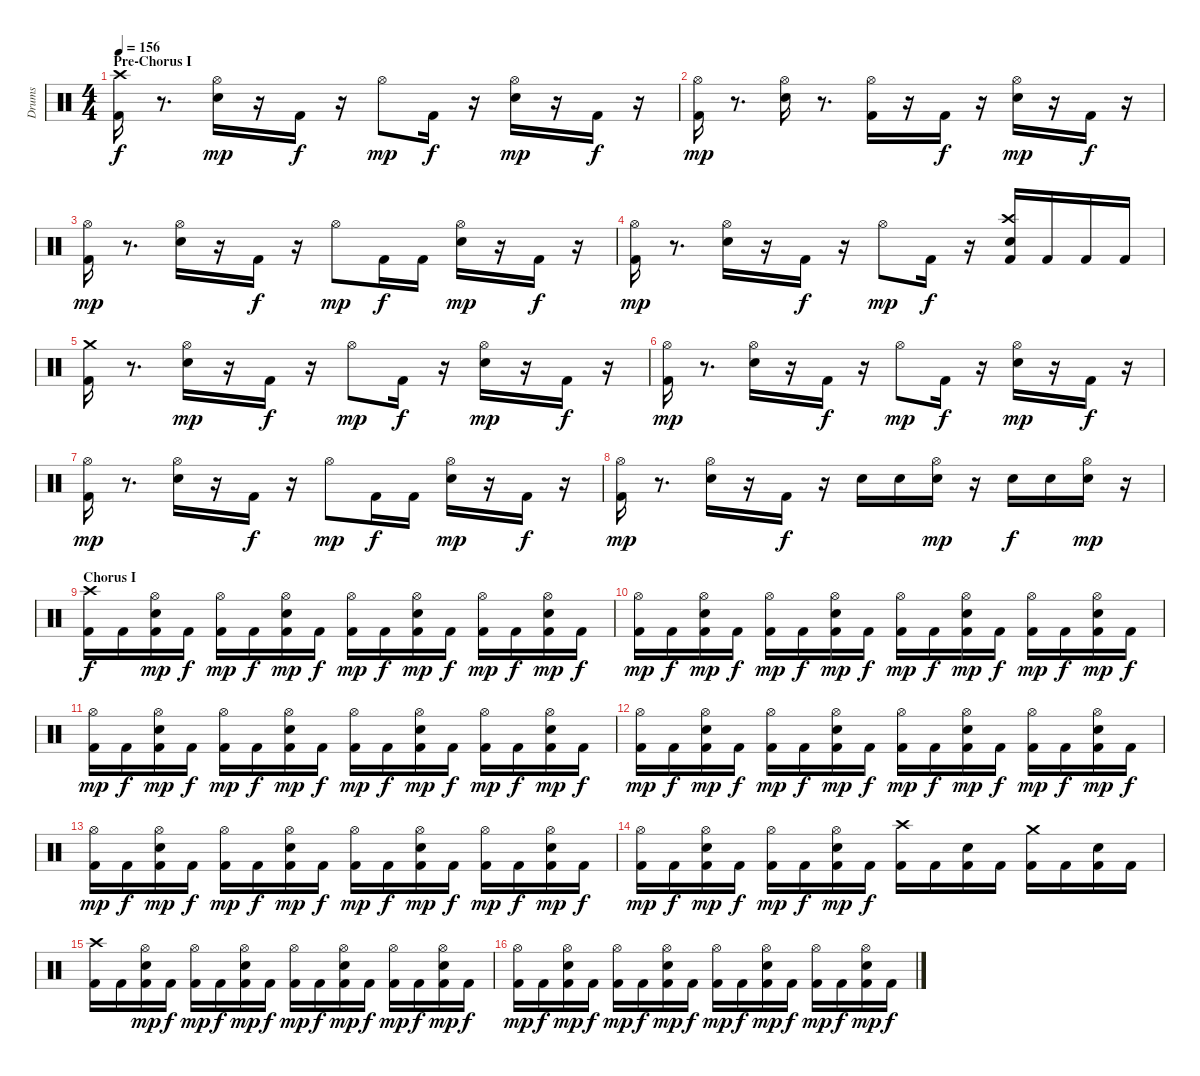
\track ("Drums" "Drums") {instrument percussion}
\staff {score}
\articulation defaults
\ts (4 4)
\section ("" "Pre-Chorus I")
\tempo 156
\clef neutral
\ks c
("Kick (hit) 2" "Crash high (hit)").16{dy f} r.8{d} ("Snare (hit) 2" "Hi-Hat (open)").16{dy mp} r.16 "Kick (hit) 2".16{dy f} r.16 "Hi-Hat (open)".8{dy mp} "Kick (hit) 2".16{dy f} r.16 ("Snare (hit) 2" "Hi-Hat (open)").16{dy mp} r.16 "Kick (hit) 2".16{dy f} r.16 |
("Kick (hit) 2" "Hi-Hat (open)").16{dy mp} r.8{d} ("Snare (hit) 2" "Hi-Hat (open)").16 r.8{d} ("Kick (hit) 2" "Hi-Hat (open)").16 r.16 "Kick (hit) 2".16{dy f} r.16 ("Snare (hit) 2" "Hi-Hat (open)").16{dy mp} r.16 "Kick (hit) 2".16{dy f} r.16 |
("Kick (hit) 2" "Hi-Hat (open)").16{dy mp} r.8{d} ("Snare (hit) 2" "Hi-Hat (open)").16 r.16 "Kick (hit) 2".16{dy f} r.16 "Hi-Hat (open)".8{dy mp} "Kick (hit) 2".16{dy f} "Kick (hit) 2".16 ("Snare (hit) 2" "Hi-Hat (open)").16{dy mp} r.16 "Kick (hit) 2".16{dy f} r.16 |
("Kick (hit) 2" "Hi-Hat (open)").16{dy mp} r.8{d} ("Snare (hit) 2" "Hi-Hat (open)").16 r.16 "Kick (hit) 2".16{dy f} r.16 "Hi-Hat (open)".8{dy mp} "Kick (hit) 2".16{dy f} r.16 ("Snare (hit) 2" "Kick (hit) 2" "Crash high (hit)").16 "Kick (hit) 2".16 "Kick (hit) 2".16 "Kick (hit) 2".16 |
("Kick (hit) 2" "Crash medium (hit)").16 r.8{d} ("Snare (hit) 2" "Hi-Hat (open)").16{dy mp} r.16 "Kick (hit) 2".16{dy f} r.16 "Hi-Hat (open)".8{dy mp} "Kick (hit) 2".16{dy f} r.16 ("Snare (hit) 2" "Hi-Hat (open)").16{dy mp} r.16 "Kick (hit) 2".16{dy f} r.16 |
("Kick (hit) 2" "Hi-Hat (open)").16{dy mp} r.8{d} ("Snare (hit) 2" "Hi-Hat (open)").16 r.16 "Kick (hit) 2".16{dy f} r.16 "Hi-Hat (open)".8{dy mp} "Kick (hit) 2".16{dy f} r.16 ("Snare (hit) 2" "Hi-Hat (open)").16{dy mp} r.16 "Kick (hit) 2".16{dy f} r.16 |
("Kick (hit) 2" "Hi-Hat (open)").16{dy mp} r.8{d} ("Snare (hit) 2" "Hi-Hat (open)").16 r.16 "Kick (hit) 2".16{dy f} r.16 "Hi-Hat (open)".8{dy mp} "Kick (hit) 2".16{dy f} "Kick (hit) 2".16 ("Snare (hit) 2" "Hi-Hat (open)").16{dy mp} r.16 "Kick (hit) 2".16{dy f} r.16 |
("Kick (hit) 2" "Hi-Hat (open)").16{dy mp} r.8{d} ("Snare (hit) 2" "Hi-Hat (open)").16 r.16 "Kick (hit) 2".16{dy f} r.16 "Snare (hit) 2".16 "Snare (hit) 2".16 ("Snare (hit) 2" "Hi-Hat (open)").16{dy mp} r.16 "Snare (hit) 2".16{dy f} "Snare (hit) 2".16 ("Snare (hit) 2" "Hi-Hat (open)").16{dy mp} r.16 |
\section ("" "Chorus I")
("Kick (hit) 2" "Crash high (hit)").16{dy f} "Kick (hit) 2".16 ("Snare (hit) 2" "Kick (hit) 2" "Hi-Hat (open)").16{dy mp} "Kick (hit) 2".16{dy f} ("Kick (hit) 2" "Hi-Hat (open)").16{dy mp} "Kick (hit) 2".16{dy f} ("Snare (hit) 2" "Kick (hit) 2" "Hi-Hat (open)").16{dy mp} "Kick (hit) 2".16{dy f} ("Kick (hit) 2" "Hi-Hat (open)").16{dy mp} "Kick (hit) 2".16{dy f} ("Snare (hit) 2" "Kick (hit) 2" "Hi-Hat (open)").16{dy mp} "Kick (hit) 2".16{dy f} ("Kick (hit) 2" "Hi-Hat (open)").16{dy mp} "Kick (hit) 2".16{dy f} ("Snare (hit) 2" "Kick (hit) 2" "Hi-Hat (open)").16{dy mp} "Kick (hit) 2".16{dy f} |
("Kick (hit) 2" "Hi-Hat (open)").16{dy mp} "Kick (hit) 2".16{dy f} ("Snare (hit) 2" "Kick (hit) 2" "Hi-Hat (open)").16{dy mp} "Kick (hit) 2".16{dy f} ("Kick (hit) 2" "Hi-Hat (open)").16{dy mp} "Kick (hit) 2".16{dy f} ("Snare (hit) 2" "Kick (hit) 2" "Hi-Hat (open)").16{dy mp} "Kick (hit) 2".16{dy f} ("Kick (hit) 2" "Hi-Hat (open)").16{dy mp} "Kick (hit) 2".16{dy f} ("Snare (hit) 2" "Kick (hit) 2" "Hi-Hat (open)").16{dy mp} "Kick (hit) 2".16{dy f} ("Kick (hit) 2" "Hi-Hat (open)").16{dy mp} "Kick (hit) 2".16{dy f} ("Snare (hit) 2" "Kick (hit) 2" "Hi-Hat (open)").16{dy mp} "Kick (hit) 2".16{dy f} |
("Kick (hit) 2" "Hi-Hat (open)").16{dy mp} "Kick (hit) 2".16{dy f} ("Snare (hit) 2" "Kick (hit) 2" "Hi-Hat (open)").16{dy mp} "Kick (hit) 2".16{dy f} ("Kick (hit) 2" "Hi-Hat (open)").16{dy mp} "Kick (hit) 2".16{dy f} ("Snare (hit) 2" "Kick (hit) 2" "Hi-Hat (open)").16{dy mp} "Kick (hit) 2".16{dy f} ("Kick (hit) 2" "Hi-Hat (open)").16{dy mp} "Kick (hit) 2".16{dy f} ("Snare (hit) 2" "Kick (hit) 2" "Hi-Hat (open)").16{dy mp} "Kick (hit) 2".16{dy f} ("Kick (hit) 2" "Hi-Hat (open)").16{dy mp} "Kick (hit) 2".16{dy f} ("Snare (hit) 2" "Kick (hit) 2" "Hi-Hat (open)").16{dy mp} "Kick (hit) 2".16{dy f} |
("Kick (hit) 2" "Hi-Hat (open)").16{dy mp} "Kick (hit) 2".16{dy f} ("Snare (hit) 2" "Kick (hit) 2" "Hi-Hat (open)").16{dy mp} "Kick (hit) 2".16{dy f} ("Kick (hit) 2" "Hi-Hat (open)").16{dy mp} "Kick (hit) 2".16{dy f} ("Snare (hit) 2" "Kick (hit) 2" "Hi-Hat (open)").16{dy mp} "Kick (hit) 2".16{dy f} ("Kick (hit) 2" "Hi-Hat (open)").16{dy mp} "Kick (hit) 2".16{dy f} ("Snare (hit) 2" "Kick (hit) 2" "Hi-Hat (open)").16{dy mp} "Kick (hit) 2".16{dy f} ("Kick (hit) 2" "Hi-Hat (open)").16{dy mp} "Kick (hit) 2".16{dy f} ("Snare (hit) 2" "Kick (hit) 2" "Hi-Hat (open)").16{dy mp} "Kick (hit) 2".16{dy f} |
("Kick (hit) 2" "Hi-Hat (open)").16{dy mp} "Kick (hit) 2".16{dy f} ("Snare (hit) 2" "Kick (hit) 2" "Hi-Hat (open)").16{dy mp} "Kick (hit) 2".16{dy f} ("Kick (hit) 2" "Hi-Hat (open)").16{dy mp} "Kick (hit) 2".16{dy f} ("Snare (hit) 2" "Kick (hit) 2" "Hi-Hat (open)").16{dy mp} "Kick (hit) 2".16{dy f} ("Kick (hit) 2" "Hi-Hat (open)").16{dy mp} "Kick (hit) 2".16{dy f} ("Snare (hit) 2" "Kick (hit) 2" "Hi-Hat (open)").16{dy mp} "Kick (hit) 2".16{dy f} ("Kick (hit) 2" "Hi-Hat (open)").16{dy mp} "Kick (hit) 2".16{dy f} ("Snare (hit) 2" "Kick (hit) 2" "Hi-Hat (open)").16{dy mp} "Kick (hit) 2".16{dy f} |
("Kick (hit) 2" "Hi-Hat (open)").16{dy mp} "Kick (hit) 2".16{dy f} ("Snare (hit) 2" "Kick (hit) 2" "Hi-Hat (open)").16{dy mp} "Kick (hit) 2".16{dy f} ("Kick (hit) 2" "Hi-Hat (open)").16{dy mp} "Kick (hit) 2".16{dy f} ("Snare (hit) 2" "Kick (hit) 2" "Hi-Hat (open)").16{dy mp} "Kick (hit) 2".16{dy f} ("Kick (hit) 2" "Crash high (hit)").16 "Kick (hit) 2".16 ("Snare (hit) 2" "Kick (hit) 2").16 "Kick (hit) 2".16 ("Kick (hit) 2" "Crash medium (hit)").16 "Kick (hit) 2".16 ("Snare (hit) 2" "Kick (hit) 2").16 "Kick (hit) 2".16 |
("Kick (hit) 2" "Crash high (hit)").16 "Kick (hit) 2".16 ("Snare (hit) 2" "Kick (hit) 2" "Hi-Hat (open)").16{dy mp} "Kick (hit) 2".16{dy f} ("Kick (hit) 2" "Hi-Hat (open)").16{dy mp} "Kick (hit) 2".16{dy f} ("Snare (hit) 2" "Kick (hit) 2" "Hi-Hat (open)").16{dy mp} "Kick (hit) 2".16{dy f} ("Kick (hit) 2" "Hi-Hat (open)").16{dy mp} "Kick (hit) 2".16{dy f} ("Snare (hit) 2" "Kick (hit) 2" "Hi-Hat (open)").16{dy mp} "Kick (hit) 2".16{dy f} ("Kick (hit) 2" "Hi-Hat (open)").16{dy mp} "Kick (hit) 2".16{dy f} ("Snare (hit) 2" "Kick (hit) 2" "Hi-Hat (open)").16{dy mp} "Kick (hit) 2".16{dy f} |
("Kick (hit) 2" "Hi-Hat (open)").16{dy mp} "Kick (hit) 2".16{dy f} ("Snare (hit) 2" "Kick (hit) 2" "Hi-Hat (open)").16{dy mp} "Kick (hit) 2".16{dy f} ("Kick (hit) 2" "Hi-Hat (open)").16{dy mp} "Kick (hit) 2".16{dy f} ("Snare (hit) 2" "Kick (hit) 2" "Hi-Hat (open)").16{dy mp} "Kick (hit) 2".16{dy f} ("Kick (hit) 2" "Hi-Hat (open)").16{dy mp} "Kick (hit) 2".16{dy f} ("Snare (hit) 2" "Kick (hit) 2" "Hi-Hat (open)").16{dy mp} "Kick (hit) 2".16{dy f} ("Kick (hit) 2" "Hi-Hat (open)").16{dy mp} "Kick (hit) 2".16{dy f} ("Snare (hit) 2" "Kick (hit) 2" "Hi-Hat (open)").16{dy mp} "Kick (hit) 2".16{dy f}
